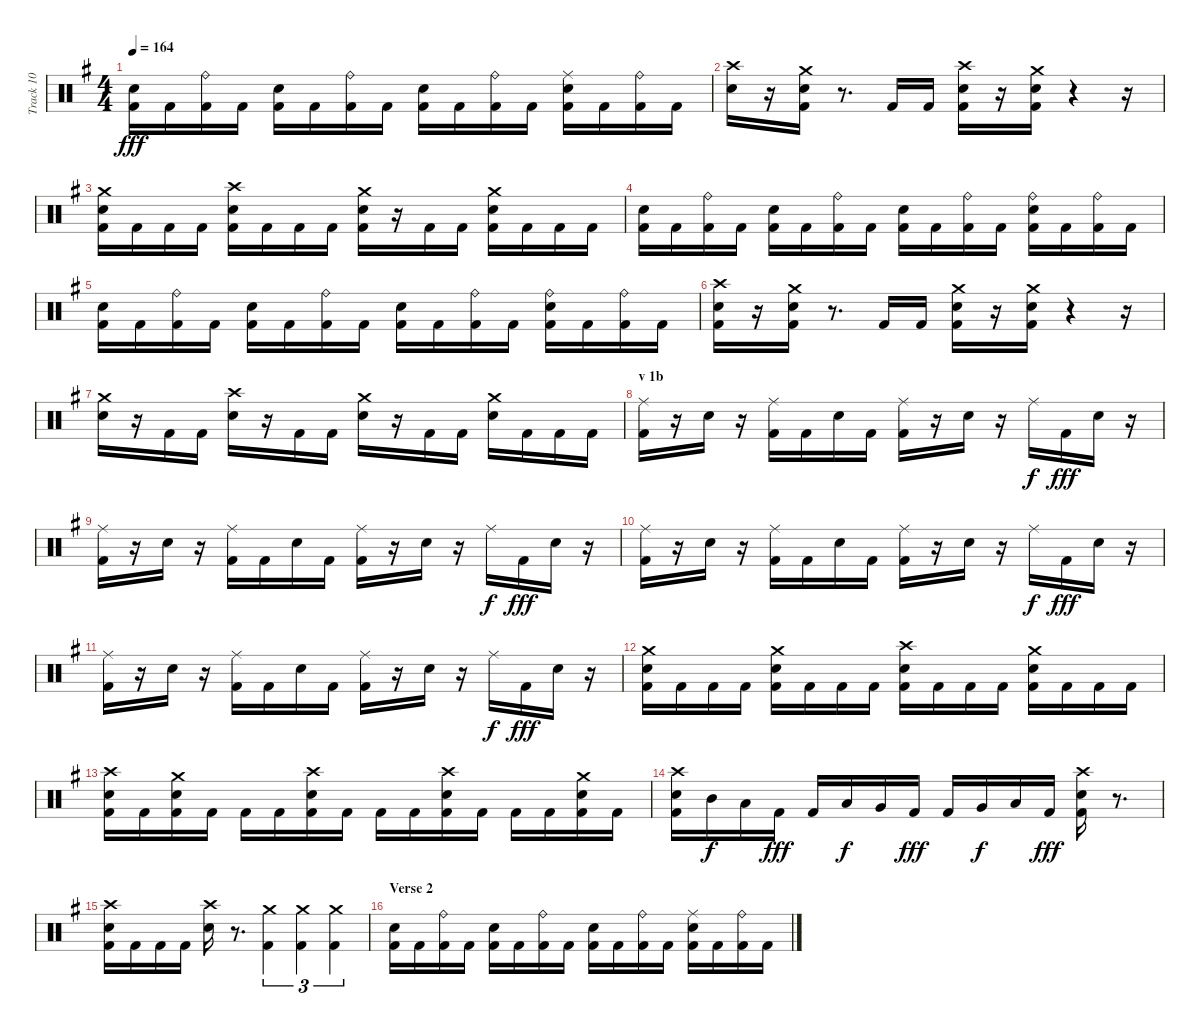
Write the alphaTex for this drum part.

\track ("Track 10" "Track 10") {instrument percussion}
\staff {score}
\articulation defaults
\ts (4 4)
\tempo 164
\clef neutral
\ks eminor
("Electric Snare (hit)" "Kick (hit) 2").16{dy fff} "Kick (hit) 2".16 ("Kick (hit) 2" "Ride (bell)").16 "Kick (hit) 2".16 ("Kick (hit) 2" "Electric Snare (hit)").16 "Kick (hit) 2".16 ("Kick (hit) 2" "Ride (bell)").16 "Kick (hit) 2".16 ("Kick (hit) 2" "Electric Snare (hit)").16 "Kick (hit) 2".16 ("Kick (hit) 2" "Ride (bell)").16 "Kick (hit) 2".16 ("Electric Snare (hit)" "Kick (hit) 2" "Ride (middle)").16 "Kick (hit) 2".16 ("Kick (hit) 2" "Ride (bell)").16 "Kick (hit) 2".16 |
("Electric Snare (hit)" "Crash high (hit)").16 r.16 ("Electric Snare (hit)" "Kick (hit) 2" "Crash medium (hit)").16 r.8{d} "Kick (hit) 2".16 "Kick (hit) 2".16 ("Electric Snare (hit)" "Kick (hit) 2" "Crash high (hit)").16 r.16 ("Electric Snare (hit)" "Kick (hit) 2" "Crash medium (hit)").16 r.4 r.16 |
("Kick (hit) 2" "Electric Snare (hit)" "Crash medium (hit)").16 "Kick (hit) 2".16 "Kick (hit) 2".16 "Kick (hit) 2".16 ("Kick (hit) 2" "Electric Snare (hit)" "Crash high (hit)").16 "Kick (hit) 2".16 "Kick (hit) 2".16 "Kick (hit) 2".16 ("Kick (hit) 2" "Electric Snare (hit)" "Crash medium (hit)").16 r.16 "Kick (hit) 2".16 "Kick (hit) 2".16 ("Electric Snare (hit)" "Kick (hit) 2" "Crash medium (hit)").16 "Kick (hit) 2".16 "Kick (hit) 2".16 "Kick (hit) 2".16 |
("Electric Snare (hit)" "Kick (hit) 2").16 "Kick (hit) 2".16 ("Kick (hit) 2" "Ride (bell)").16 "Kick (hit) 2".16 ("Electric Snare (hit)" "Kick (hit) 2").16 "Kick (hit) 2".16 ("Kick (hit) 2" "Ride (bell)").16 "Kick (hit) 2".16 ("Electric Snare (hit)" "Kick (hit) 2").16 "Kick (hit) 2".16 ("Kick (hit) 2" "Ride (bell)").16 "Kick (hit) 2".16 ("Kick (hit) 2" "Electric Snare (hit)" "Ride (bell)").16 "Kick (hit) 2".16 ("Kick (hit) 2" "Ride (bell)").16 "Kick (hit) 2".16 |
("Electric Snare (hit)" "Kick (hit) 2").16 "Kick (hit) 2".16 ("Kick (hit) 2" "Ride (bell)").16 "Kick (hit) 2".16 ("Kick (hit) 2" "Electric Snare (hit)").16 "Kick (hit) 2".16 ("Kick (hit) 2" "Ride (bell)").16 "Kick (hit) 2".16 ("Electric Snare (hit)" "Kick (hit) 2").16 "Kick (hit) 2".16 ("Kick (hit) 2" "Ride (bell)").16 "Kick (hit) 2".16 ("Kick (hit) 2" "Electric Snare (hit)" "Ride (bell)").16 "Kick (hit) 2".16 ("Kick (hit) 2" "Ride (bell)").16 "Kick (hit) 2".16 |
("Kick (hit) 2" "Electric Snare (hit)" "Crash high (hit)").16 r.16 ("Electric Snare (hit)" "Kick (hit) 2" "Crash medium (hit)").16 r.8{d} "Kick (hit) 2".16 "Kick (hit) 2".16 ("Kick (hit) 2" "Electric Snare (hit)" "Crash medium (hit)").16 r.16 ("Electric Snare (hit)" "Kick (hit) 2" "Crash medium (hit)").16 r.4 r.16 |
("Electric Snare (hit)" "Crash medium (hit)").16 r.16 "Kick (hit) 2".16 "Kick (hit) 2".16 ("Electric Snare (hit)" "Crash high (hit)").16 r.16 "Kick (hit) 2".16 "Kick (hit) 2".16 ("Electric Snare (hit)" "Crash medium (hit)").16 r.16 "Kick (hit) 2".16 "Kick (hit) 2".16 ("Electric Snare (hit)" "Crash medium (hit)").16 "Kick (hit) 2".16 "Kick (hit) 2".16 "Kick (hit) 2".16 |
\section ("" "v 1b")
("Kick (hit) 2" "Ride (middle)").16 r.16 "Electric Snare (hit)".16 r.16 ("Kick (hit) 2" "Ride (middle)").16 "Kick (hit) 2".16 "Electric Snare (hit)".16 "Kick (hit) 2".16 ("Kick (hit) 2" "Ride (middle)").16 r.16 "Electric Snare (hit)".16 r.16 "Ride (middle)".16{dy f} "Kick (hit) 2".16{dy fff} "Electric Snare (hit)".16 r.16 |
("Kick (hit) 2" "Ride (middle)").16 r.16 "Electric Snare (hit)".16 r.16 ("Kick (hit) 2" "Ride (middle)").16 "Kick (hit) 2".16 "Electric Snare (hit)".16 "Kick (hit) 2".16 ("Kick (hit) 2" "Ride (middle)").16 r.16 "Electric Snare (hit)".16 r.16 "Ride (middle)".16{dy f} "Kick (hit) 2".16{dy fff} "Electric Snare (hit)".16 r.16 |
("Kick (hit) 2" "Ride (middle)").16 r.16 "Electric Snare (hit)".16 r.16 ("Kick (hit) 2" "Ride (middle)").16 "Kick (hit) 2".16 "Electric Snare (hit)".16 "Kick (hit) 2".16 ("Kick (hit) 2" "Ride (middle)").16 r.16 "Electric Snare (hit)".16 r.16 "Ride (middle)".16{dy f} "Kick (hit) 2".16{dy fff} "Electric Snare (hit)".16 r.16 |
("Kick (hit) 2" "Ride (middle)").16 r.16 "Electric Snare (hit)".16 r.16 ("Kick (hit) 2" "Ride (middle)").16 "Kick (hit) 2".16 "Electric Snare (hit)".16 "Kick (hit) 2".16 ("Kick (hit) 2" "Ride (middle)").16 r.16 "Electric Snare (hit)".16 r.16 "Ride (middle)".16{dy f} "Kick (hit) 2".16{dy fff} "Electric Snare (hit)".16 r.16 |
("Electric Snare (hit)" "Kick (hit) 2" "Crash medium (hit)").16 "Kick (hit) 2".16 "Kick (hit) 2".16 "Kick (hit) 2".16 ("Electric Snare (hit)" "Kick (hit) 2" "Crash medium (hit)").16 "Kick (hit) 2".16 "Kick (hit) 2".16 "Kick (hit) 2".16 ("Electric Snare (hit)" "Kick (hit) 2" "Crash high (hit)").16 "Kick (hit) 2".16 "Kick (hit) 2".16 "Kick (hit) 2".16 ("Electric Snare (hit)" "Kick (hit) 2" "Crash medium (hit)").16 "Kick (hit) 2".16 "Kick (hit) 2".16 "Kick (hit) 2".16 |
("Electric Snare (hit)" "Kick (hit) 2" "Crash high (hit)").16 "Kick (hit) 2".16 ("Kick (hit) 2" "Electric Snare (hit)" "Crash medium (hit)").16 "Kick (hit) 2".16 "Kick (hit) 2".16 "Kick (hit) 2".16 ("Kick (hit) 2" "Electric Snare (hit)" "Crash high (hit)").16 "Kick (hit) 2".16 "Kick (hit) 2".16 "Kick (hit) 2".16 ("Electric Snare (hit)" "Kick (hit) 2" "Crash high (hit)").16 "Kick (hit) 2".16 "Kick (hit) 2".16 "Kick (hit) 2".16 ("Electric Snare (hit)" "Kick (hit) 2" "Crash medium (hit)").16 "Kick (hit) 2".16 |
("Electric Snare (hit)" "Kick (hit) 2" "Crash high (hit)").16 "Mid Tom (hit)".16{dy f} "Low Tom (hit)".16 "Kick (hit) 2".16{dy fff} "Kick (hit) 2".16 "Low Tom (hit)".16{dy f} "Very Low Tom (hit)".16 "Kick (hit) 2".16{dy fff} "Kick (hit) 2".16 "Very Low Tom (hit)".16{dy f} "Low Floor Tom (hit)".16 "Kick (hit) 2".16{dy fff} ("Kick (hit) 2" "Electric Snare (hit)" "Crash high (hit)").16 r.8{d} |
("Kick (hit) 2" "Electric Snare (hit)" "Crash high (hit)").16 "Kick (hit) 2".16 "Kick (hit) 2".16 "Kick (hit) 2".16 ("Electric Snare (hit)" "Crash high (hit)").16 r.8{d} ("Kick (hit) 2" "Crash medium (hit)").4{tu (3 2)} ("Kick (hit) 2" "Crash medium (hit)").4{tu (3 2)} ("Kick (hit) 2" "Crash medium (hit)").4{tu (3 2)} |
\section ("" "Verse 2")
("Kick (hit) 2" "Electric Snare (hit)").16 "Kick (hit) 2".16 ("Kick (hit) 2" "Ride (bell)").16 "Kick (hit) 2".16 ("Kick (hit) 2" "Electric Snare (hit)").16 "Kick (hit) 2".16 ("Kick (hit) 2" "Ride (bell)").16 "Kick (hit) 2".16 ("Electric Snare (hit)" "Kick (hit) 2").16 "Kick (hit) 2".16 ("Kick (hit) 2" "Ride (bell)").16 "Kick (hit) 2".16 ("Electric Snare (hit)" "Kick (hit) 2" "Ride (middle)").16 "Kick (hit) 2".16 ("Kick (hit) 2" "Ride (bell)").16 "Kick (hit) 2".16
